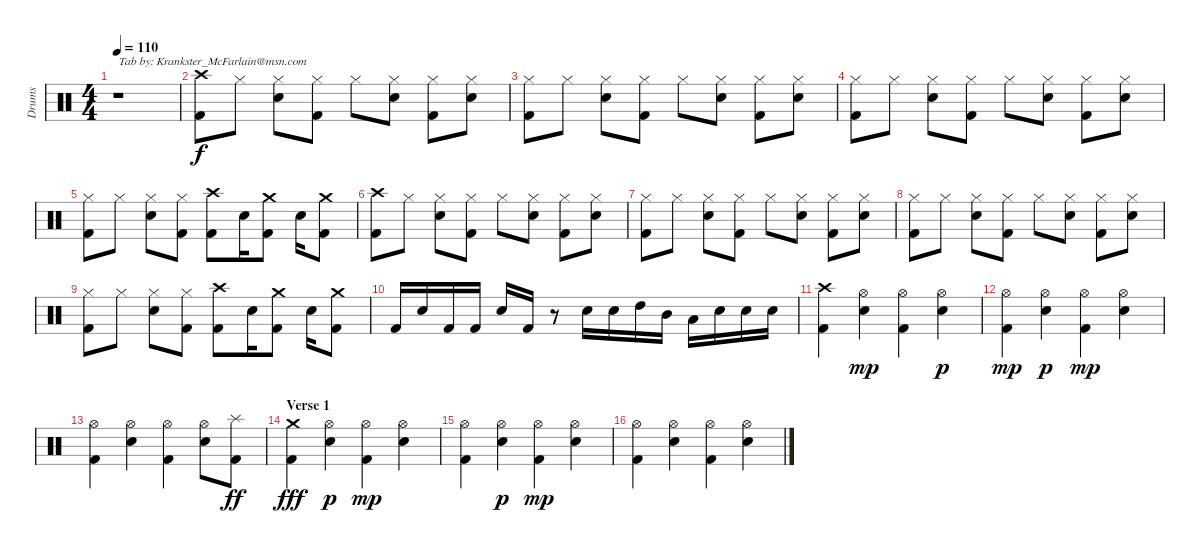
\track ("Drums" "Drums") {instrument percussion}
\staff {score}
\articulation defaults
\ts (4 4)
\tempo 110
\clef neutral
\ks c
r.1{txt "Tab by: Krankster_McFarlain@msn.com" dy f} |
("Crash high (hit)" "Kick (hit) 2").8 "Hi-Hat (closed)".8 ("Hi-Hat (closed)" "Snare (hit) 2").8 ("Hi-Hat (closed)" "Kick (hit) 2").8 "Hi-Hat (closed)".8 ("Hi-Hat (closed)" "Snare (hit) 2").8 ("Hi-Hat (closed)" "Kick (hit) 2").8 ("Hi-Hat (closed)" "Snare (hit) 2").8 |
("Hi-Hat (closed)" "Kick (hit) 2").8 "Hi-Hat (closed)".8 ("Hi-Hat (closed)" "Snare (hit) 2").8 ("Hi-Hat (closed)" "Kick (hit) 2").8 "Hi-Hat (closed)".8 ("Hi-Hat (closed)" "Snare (hit) 2").8 ("Hi-Hat (closed)" "Kick (hit) 2").8 ("Hi-Hat (closed)" "Snare (hit) 2").8 |
("Hi-Hat (closed)" "Kick (hit) 2").8 "Hi-Hat (closed)".8 ("Hi-Hat (closed)" "Snare (hit) 2").8 ("Hi-Hat (closed)" "Kick (hit) 2").8 "Hi-Hat (closed)".8 ("Hi-Hat (closed)" "Snare (hit) 2").8 ("Hi-Hat (closed)" "Kick (hit) 2").8 ("Hi-Hat (closed)" "Snare (hit) 2").8 |
("Hi-Hat (closed)" "Kick (hit) 2").8 "Hi-Hat (closed)".8 ("Hi-Hat (closed)" "Snare (hit) 2").8 ("Hi-Hat (closed)" "Kick (hit) 2").8 ("Crash high (hit)" "Kick (hit) 2").8 "Snare (hit) 2".16 ("Crash medium (hit)" "Kick (hit) 2").8 "Snare (hit) 2".16 ("Crash medium (hit)" "Kick (hit) 2").8 |
("Crash high (hit)" "Kick (hit) 2").8 "Hi-Hat (closed)".8 ("Hi-Hat (closed)" "Snare (hit) 2").8 ("Hi-Hat (closed)" "Kick (hit) 2").8 "Hi-Hat (closed)".8 ("Hi-Hat (closed)" "Snare (hit) 2").8 ("Hi-Hat (closed)" "Kick (hit) 2").8 ("Hi-Hat (closed)" "Snare (hit) 2").8 |
("Hi-Hat (closed)" "Kick (hit) 2").8 "Hi-Hat (closed)".8 ("Hi-Hat (closed)" "Snare (hit) 2").8 ("Hi-Hat (closed)" "Kick (hit) 2").8 "Hi-Hat (closed)".8 ("Hi-Hat (closed)" "Snare (hit) 2").8 ("Hi-Hat (closed)" "Kick (hit) 2").8 ("Hi-Hat (closed)" "Snare (hit) 2").8 |
("Hi-Hat (closed)" "Kick (hit) 2").8 "Hi-Hat (closed)".8 ("Hi-Hat (closed)" "Snare (hit) 2").8 ("Hi-Hat (closed)" "Kick (hit) 2").8 "Hi-Hat (closed)".8 ("Hi-Hat (closed)" "Snare (hit) 2").8 ("Hi-Hat (closed)" "Kick (hit) 2").8 ("Hi-Hat (closed)" "Snare (hit) 2").8 |
("Hi-Hat (closed)" "Kick (hit) 2").8 "Hi-Hat (closed)".8 ("Hi-Hat (closed)" "Snare (hit) 2").8 ("Hi-Hat (closed)" "Kick (hit) 2").8 ("Crash high (hit)" "Kick (hit) 2").8 "Snare (hit) 2".16 ("Crash medium (hit)" "Kick (hit) 2").8 "Snare (hit) 2".16 ("Crash medium (hit)" "Kick (hit) 2").8 |
"Kick (hit) 2".16 "Snare (hit) 2".16 "Kick (hit) 2".16 "Kick (hit) 2".16 "Snare (hit) 2".16 "Kick (hit) 2".16 r.8 "Snare (hit) 2".16 "Snare (hit) 2".16 "High Tom (hit)".16 "Mid Tom (hit)".16 "Low Tom (hit)".16 "Snare (hit) 2".16 "Snare (hit) 2".16 "Snare (hit) 2".16 |
("Crash high (hit)" "Kick (hit) 2").4 ("Hi-Hat (open)" "Snare (hit) 2").4{dy mp} ("Hi-Hat (open)" "Kick (hit) 2").4 ("Hi-Hat (open)" "Snare (hit) 2").4{dy p} |
("Hi-Hat (open)" "Kick (hit) 2").4{dy mp} ("Hi-Hat (open)" "Snare (hit) 2").4{dy p} ("Hi-Hat (open)" "Kick (hit) 2").4{dy mp} ("Hi-Hat (open)" "Snare (hit) 2").4 |
("Hi-Hat (open)" "Kick (hit) 2").4 ("Hi-Hat (open)" "Snare (hit) 2").4 ("Hi-Hat (open)" "Kick (hit) 2").4 ("Hi-Hat (open)" "Snare (hit) 2").8 ("Splash (hit)" "Kick (hit) 2").8{dy ff} |
\section ("" "Verse 1")
("Crash medium (hit)" "Kick (hit) 2").4{dy fff} ("Hi-Hat (open)" "Snare (hit) 2").4{dy p} ("Hi-Hat (open)" "Kick (hit) 2").4{dy mp} ("Hi-Hat (open)" "Snare (hit) 2").4 |
("Hi-Hat (open)" "Kick (hit) 2").4 ("Hi-Hat (open)" "Snare (hit) 2").4{dy p} ("Hi-Hat (open)" "Kick (hit) 2").4{dy mp} ("Hi-Hat (open)" "Snare (hit) 2").4 |
("Hi-Hat (open)" "Kick (hit) 2").4 ("Hi-Hat (open)" "Snare (hit) 2").4 ("Hi-Hat (open)" "Kick (hit) 2").4 ("Hi-Hat (open)" "Snare (hit) 2").4
